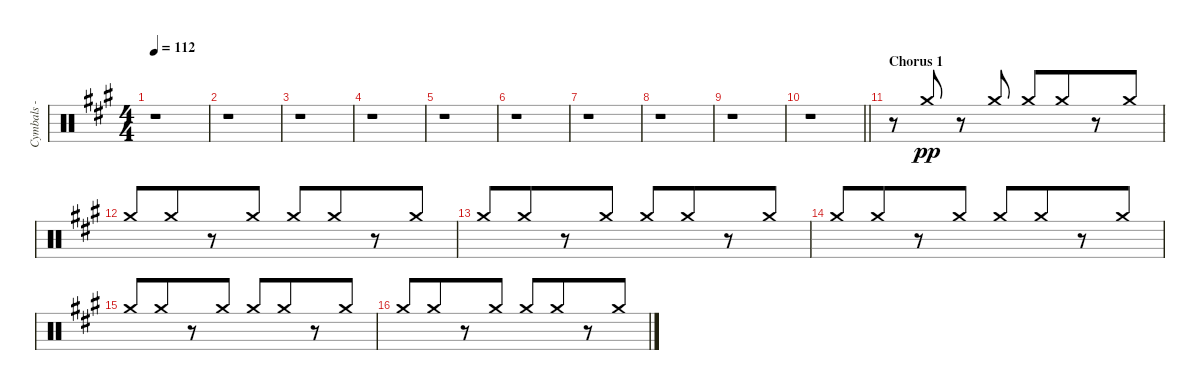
\track ("Cymbals - ride" "Cymbals - ") {instrument percussion}
\staff {score}
\articulation defaults
\ts (4 4)
\tempo 112
\clef neutral
\ks f#minor
r.1{dy pp} |
r.1 |
r.1 |
r.1 |
r.1 |
r.1 |
r.1 |
r.1 |
r.1 |
\barLineRight lightlight
r.1 |
\section ("" "Chorus 1")
r.8{volume 12 balance 4} "Crash medium (hit)".8{beam Up} r.8{beam Up} "Crash medium (hit)".8{beam Up} "Crash medium (hit)".8{beam Up} "Crash medium (hit)".8{beam Up beam merge} r.8{beam Up} "Crash medium (hit)".8{beam Up} |
"Crash medium (hit)".8{beam Up} "Crash medium (hit)".8{beam Up beam merge} r.8{beam Up} "Crash medium (hit)".8{beam Up} "Crash medium (hit)".8{beam Up} "Crash medium (hit)".8{beam Up beam merge} r.8{beam Up} "Crash medium (hit)".8{beam Up} |
"Crash medium (hit)".8{beam Up} "Crash medium (hit)".8{beam Up beam merge} r.8{beam Up} "Crash medium (hit)".8{beam Up} "Crash medium (hit)".8{beam Up} "Crash medium (hit)".8{beam Up beam merge} r.8{beam Up} "Crash medium (hit)".8{beam Up} |
"Crash medium (hit)".8{beam Up} "Crash medium (hit)".8{beam Up beam merge} r.8{beam Up} "Crash medium (hit)".8{beam Up} "Crash medium (hit)".8{beam Up} "Crash medium (hit)".8{beam Up beam merge} r.8{beam Up} "Crash medium (hit)".8{beam Up} |
"Crash medium (hit)".8{beam Up} "Crash medium (hit)".8{beam Up beam merge} r.8{beam Up} "Crash medium (hit)".8{beam Up} "Crash medium (hit)".8{beam Up} "Crash medium (hit)".8{beam Up beam merge} r.8{beam Up} "Crash medium (hit)".8{beam Up} |
"Crash medium (hit)".8{beam Up} "Crash medium (hit)".8{beam Up beam merge} r.8{beam Up} "Crash medium (hit)".8{beam Up} "Crash medium (hit)".8{beam Up} "Crash medium (hit)".8{beam Up beam merge} r.8{beam Up} "Crash medium (hit)".8{beam Up}
